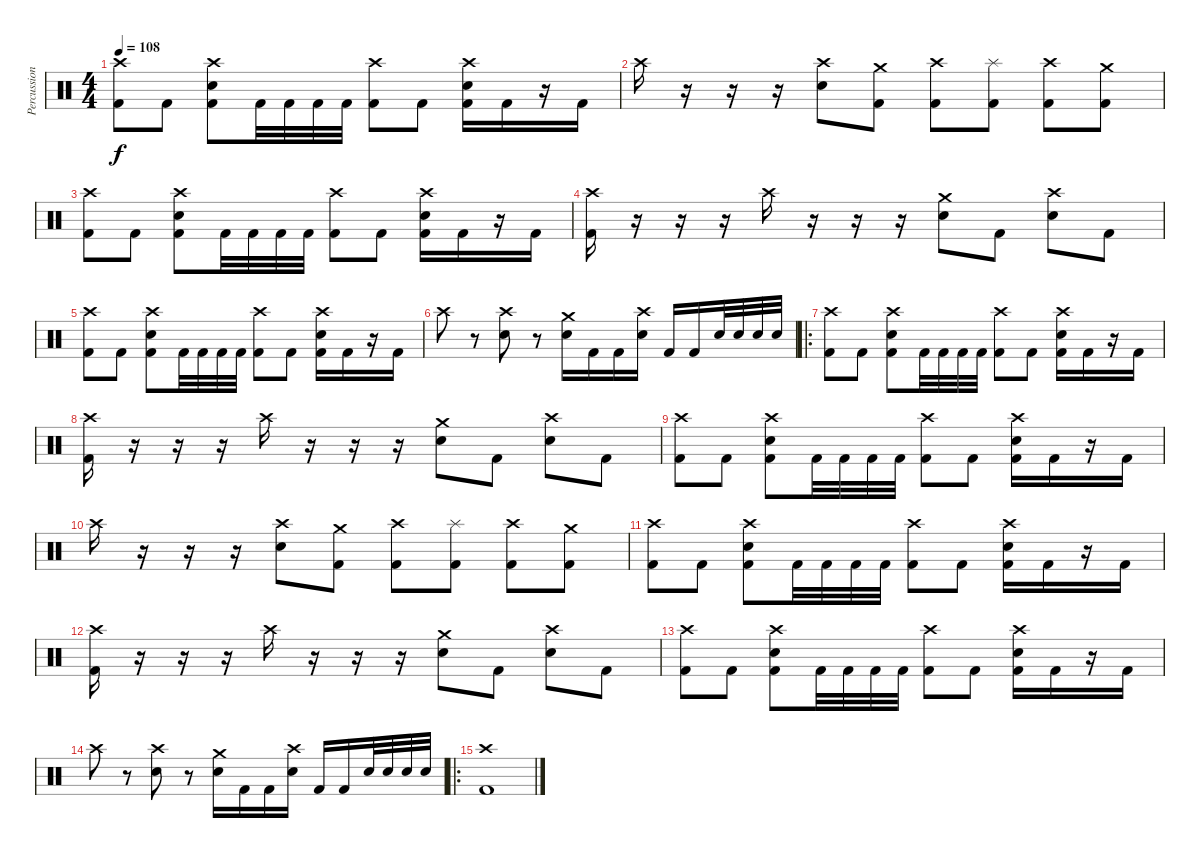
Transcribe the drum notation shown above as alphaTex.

\track ("Percussion" "Percussion") {instrument percussion}
\staff {score}
\articulation defaults
\ts (4 4)
\tempo 108
\clef neutral
\ks c
("Crash high (hit)" "Kick (hit) 2").8{dy f} "Kick (hit) 2".8 ("Crash high (hit)" "Electric Snare (hit)" "Kick (hit) 2").8 "Kick (hit) 2".32 "Kick (hit) 2".32 "Kick (hit) 2".32 "Kick (hit) 2".32 ("Crash high (hit)" "Kick (hit) 2").8 "Kick (hit) 2".8 ("Crash high (hit)" "Electric Snare (hit)" "Kick (hit) 2").16 "Kick (hit) 2".16 r.16 "Kick (hit) 2".16 |
"Crash high (hit)".16 r.16 r.16 r.16 ("Crash high (hit)" "Electric Snare (hit)").8 ("Crash medium (hit)" "Kick (hit) 2").8 ("Crash high (hit)" "Kick (hit) 2").8 ("Splash (hit)" "Kick (hit) 2").8 ("Crash high (hit)" "Kick (hit) 2").8 ("Crash medium (hit)" "Kick (hit) 2").8 |
("Crash high (hit)" "Kick (hit) 2").8 "Kick (hit) 2".8 ("Crash high (hit)" "Electric Snare (hit)" "Kick (hit) 2").8 "Kick (hit) 2".32 "Kick (hit) 2".32 "Kick (hit) 2".32 "Kick (hit) 2".32 ("Crash high (hit)" "Kick (hit) 2").8 "Kick (hit) 2".8 ("Crash high (hit)" "Electric Snare (hit)" "Kick (hit) 2").16 "Kick (hit) 2".16 r.16 "Kick (hit) 2".16 |
("Crash high (hit)" "Kick (hit) 2").16 r.16 r.16 r.16 "Crash high (hit)".16 r.16 r.16 r.16 ("Crash medium (hit)" "Electric Snare (hit)").8 "Kick (hit) 2".8 ("Crash high (hit)" "Electric Snare (hit)").8 "Kick (hit) 2".8 |
("Crash high (hit)" "Kick (hit) 2").8 "Kick (hit) 2".8 ("Crash high (hit)" "Electric Snare (hit)" "Kick (hit) 2").8 "Kick (hit) 2".32 "Kick (hit) 2".32 "Kick (hit) 2".32 "Kick (hit) 2".32 ("Crash high (hit)" "Kick (hit) 2").8 "Kick (hit) 2".8 ("Crash high (hit)" "Electric Snare (hit)" "Kick (hit) 2").16 "Kick (hit) 2".16 r.16 "Kick (hit) 2".16 |
"Crash high (hit)".8 r.8 ("Crash high (hit)" "Electric Snare (hit)").8 r.8 ("Crash medium (hit)" "Electric Snare (hit)").16 "Kick (hit) 2".16 "Kick (hit) 2".16 ("Electric Snare (hit)" "Crash high (hit)").16 "Kick (hit) 2".16 "Kick (hit) 2".16 "Electric Snare (hit)".32 "Electric Snare (hit)".32 "Electric Snare (hit)".32 "Electric Snare (hit)".32 |
\ro
("Crash high (hit)" "Kick (hit) 2").8 "Kick (hit) 2".8 ("Crash high (hit)" "Electric Snare (hit)" "Kick (hit) 2").8 "Kick (hit) 2".32 "Kick (hit) 2".32 "Kick (hit) 2".32 "Kick (hit) 2".32 ("Crash high (hit)" "Kick (hit) 2").8 "Kick (hit) 2".8 ("Crash high (hit)" "Electric Snare (hit)" "Kick (hit) 2").16 "Kick (hit) 2".16 r.16 "Kick (hit) 2".16 |
("Crash high (hit)" "Kick (hit) 2").16 r.16 r.16 r.16 "Crash high (hit)".16 r.16 r.16 r.16 ("Crash medium (hit)" "Electric Snare (hit)").8 "Kick (hit) 2".8 ("Crash high (hit)" "Electric Snare (hit)").8 "Kick (hit) 2".8 |
("Crash high (hit)" "Kick (hit) 2").8 "Kick (hit) 2".8 ("Crash high (hit)" "Electric Snare (hit)" "Kick (hit) 2").8 "Kick (hit) 2".32 "Kick (hit) 2".32 "Kick (hit) 2".32 "Kick (hit) 2".32 ("Crash high (hit)" "Kick (hit) 2").8 "Kick (hit) 2".8 ("Crash high (hit)" "Electric Snare (hit)" "Kick (hit) 2").16 "Kick (hit) 2".16 r.16 "Kick (hit) 2".16 |
"Crash high (hit)".16 r.16 r.16 r.16 ("Crash high (hit)" "Electric Snare (hit)").8 ("Crash medium (hit)" "Kick (hit) 2").8 ("Crash high (hit)" "Kick (hit) 2").8 ("Splash (hit)" "Kick (hit) 2").8 ("Crash high (hit)" "Kick (hit) 2").8 ("Crash medium (hit)" "Kick (hit) 2").8 |
("Crash high (hit)" "Kick (hit) 2").8 "Kick (hit) 2".8 ("Crash high (hit)" "Electric Snare (hit)" "Kick (hit) 2").8 "Kick (hit) 2".32 "Kick (hit) 2".32 "Kick (hit) 2".32 "Kick (hit) 2".32 ("Crash high (hit)" "Kick (hit) 2").8 "Kick (hit) 2".8 ("Crash high (hit)" "Electric Snare (hit)" "Kick (hit) 2").16 "Kick (hit) 2".16 r.16 "Kick (hit) 2".16 |
("Crash high (hit)" "Kick (hit) 2").16 r.16 r.16 r.16 "Crash high (hit)".16 r.16 r.16 r.16 ("Crash medium (hit)" "Electric Snare (hit)").8 "Kick (hit) 2".8 ("Crash high (hit)" "Electric Snare (hit)").8 "Kick (hit) 2".8 |
("Crash high (hit)" "Kick (hit) 2").8 "Kick (hit) 2".8 ("Crash high (hit)" "Electric Snare (hit)" "Kick (hit) 2").8 "Kick (hit) 2".32 "Kick (hit) 2".32 "Kick (hit) 2".32 "Kick (hit) 2".32 ("Crash high (hit)" "Kick (hit) 2").8 "Kick (hit) 2".8 ("Crash high (hit)" "Electric Snare (hit)" "Kick (hit) 2").16 "Kick (hit) 2".16 r.16 "Kick (hit) 2".16 |
"Crash high (hit)".8 r.8 ("Crash high (hit)" "Electric Snare (hit)").8 r.8 ("Crash medium (hit)" "Electric Snare (hit)").16 "Kick (hit) 2".16 "Kick (hit) 2".16 ("Electric Snare (hit)" "Crash high (hit)").16 "Kick (hit) 2".16 "Kick (hit) 2".16 "Electric Snare (hit)".32 "Electric Snare (hit)".32 "Electric Snare (hit)".32 "Electric Snare (hit)".32 |
\ro
("Crash high (hit)" "Kick (hit) 2").1
